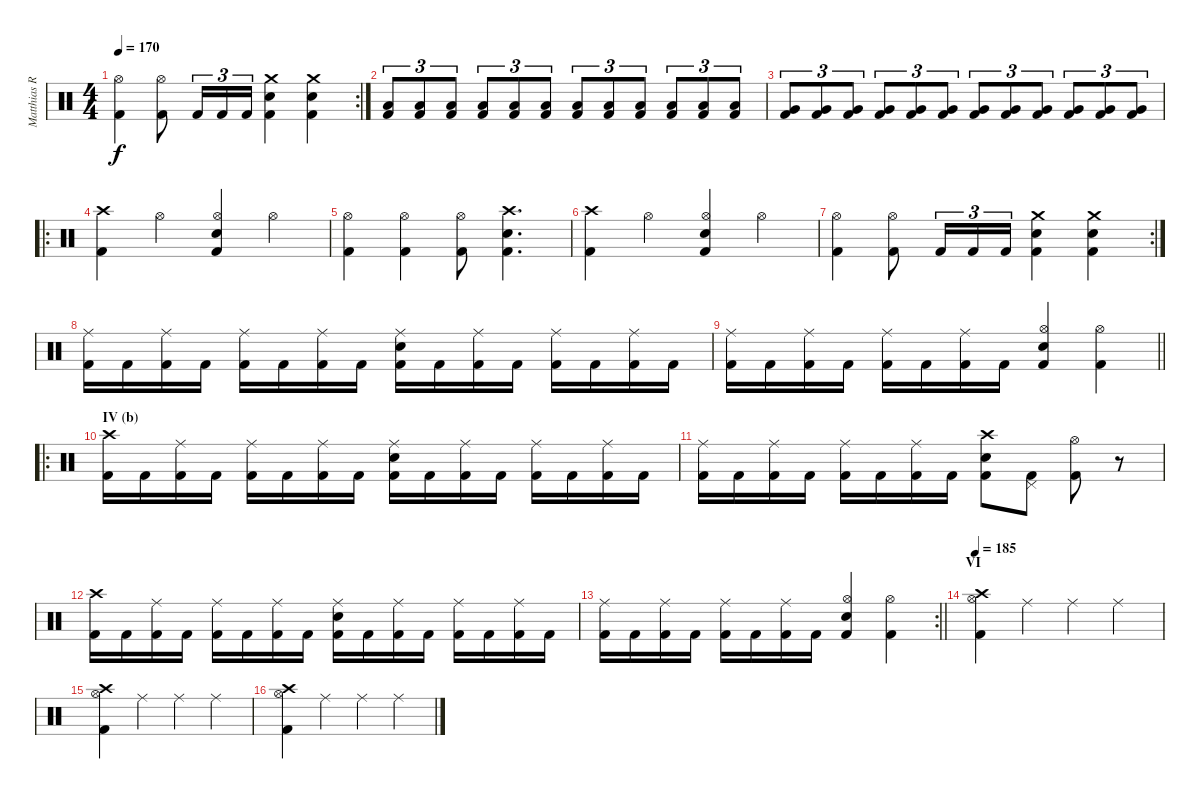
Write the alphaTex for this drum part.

\track ("Matthias R." "Matthias R") {instrument percussion}
\staff {score}
\articulation defaults
\rc 2
\ts (4 4)
\tempo 170
\clef neutral
\ks c
("Kick (hit) 2" "Hi-Hat (open)").4{dy f} ("Kick (hit) 2" "Hi-Hat (open)").8 "Kick (hit) 2".16{tu (3 2)} "Kick (hit) 2".16{tu (3 2)} "Kick (hit) 2".16{tu (3 2)} ("Kick (hit) 2" "Snare (hit) 2" "Crash medium (hit)").4 ("Kick (hit) 2" "Snare (hit) 2" "Crash medium (hit)").4 |
("Kick (hit) 2" "Low Tom (hit)").8{tu (3 2)} ("Kick (hit) 2" "Low Tom (hit)").8{tu (3 2)} ("Kick (hit) 2" "Low Tom (hit)").8{tu (3 2)} ("Kick (hit) 2" "Low Tom (hit)").8{tu (3 2)} ("Kick (hit) 2" "Low Tom (hit)").8{tu (3 2)} ("Kick (hit) 2" "Low Tom (hit)").8{tu (3 2)} ("Kick (hit) 2" "Low Tom (hit)").8{tu (3 2)} ("Kick (hit) 2" "Low Tom (hit)").8{tu (3 2)} ("Kick (hit) 2" "Low Tom (hit)").8{tu (3 2)} ("Kick (hit) 2" "Low Tom (hit)").8{tu (3 2)} ("Kick (hit) 2" "Low Tom (hit)").8{tu (3 2)} ("Kick (hit) 2" "Low Tom (hit)").8{tu (3 2)} |
("Kick (hit) 2" "Very Low Tom (hit)").8{tu (3 2)} ("Kick (hit) 2" "Very Low Tom (hit)").8{tu (3 2)} ("Kick (hit) 2" "Very Low Tom (hit)").8{tu (3 2)} ("Kick (hit) 2" "Very Low Tom (hit)").8{tu (3 2)} ("Kick (hit) 2" "Very Low Tom (hit)").8{tu (3 2)} ("Kick (hit) 2" "Very Low Tom (hit)").8{tu (3 2)} ("Kick (hit) 2" "Very Low Tom (hit)").8{tu (3 2)} ("Kick (hit) 2" "Very Low Tom (hit)").8{tu (3 2)} ("Kick (hit) 2" "Very Low Tom (hit)").8{tu (3 2)} ("Kick (hit) 2" "Very Low Tom (hit)").8{tu (3 2)} ("Kick (hit) 2" "Very Low Tom (hit)").8{tu (3 2)} ("Kick (hit) 2" "Very Low Tom (hit)").8{tu (3 2)} |
\ro
("Kick (hit) 2" "Crash high (hit)").4 "Hi-Hat (open)".4 ("Kick (hit) 2" "Snare (hit) 2" "Hi-Hat (open)").4 "Hi-Hat (open)".4 |
("Kick (hit) 2" "Hi-Hat (open)").4 ("Kick (hit) 2" "Hi-Hat (open)").4 ("Kick (hit) 2" "Hi-Hat (open)").8 ("Kick (hit) 2" "Snare (hit) 2" "Crash high (hit)").4{d} |
("Kick (hit) 2" "Crash high (hit)").4 "Hi-Hat (open)".4 ("Kick (hit) 2" "Snare (hit) 2" "Hi-Hat (open)").4 "Hi-Hat (open)".4 |
\rc 2
("Kick (hit) 2" "Hi-Hat (open)").4 ("Kick (hit) 2" "Hi-Hat (open)").8 "Kick (hit) 2".16{tu (3 2)} "Kick (hit) 2".16{tu (3 2)} "Kick (hit) 2".16{tu (3 2)} ("Kick (hit) 2" "Snare (hit) 2" "Crash medium (hit)").4 ("Kick (hit) 2" "Snare (hit) 2" "Crash medium (hit)").4 |
("Kick (hit) 2" "Ride (middle)").16 "Kick (hit) 2".16 ("Kick (hit) 2" "Ride (middle)").16 "Kick (hit) 2".16 ("Kick (hit) 2" "Ride (middle)").16 "Kick (hit) 2".16 ("Kick (hit) 2" "Ride (middle)").16 "Kick (hit) 2".16 ("Kick (hit) 2" "Snare (hit) 2" "Ride (middle)").16 "Kick (hit) 2".16 ("Kick (hit) 2" "Ride (middle)").16 "Kick (hit) 2".16 ("Kick (hit) 2" "Ride (middle)").16 "Kick (hit) 2".16 ("Kick (hit) 2" "Ride (middle)").16 "Kick (hit) 2".16 |
\barLineRight lightlight
("Kick (hit) 2" "Ride (middle)").16 "Kick (hit) 2".16 ("Kick (hit) 2" "Ride (middle)").16 "Kick (hit) 2".16 ("Kick (hit) 2" "Ride (middle)").16 "Kick (hit) 2".16 ("Kick (hit) 2" "Ride (middle)").16 "Kick (hit) 2".16 ("Kick (hit) 2" "Snare (hit) 2" "Hi-Hat (open)").4 ("Kick (hit) 2" "Hi-Hat (open)").4 |
\ro
\section ("" "IV (b)")
("Kick (hit) 2" "Crash high (hit)").16 "Kick (hit) 2".16 ("Kick (hit) 2" "Ride (middle)").16 "Kick (hit) 2".16 ("Kick (hit) 2" "Ride (middle)").16 "Kick (hit) 2".16 ("Kick (hit) 2" "Ride (middle)").16 "Kick (hit) 2".16 ("Kick (hit) 2" "Snare (hit) 2" "Ride (middle)").16 "Kick (hit) 2".16 ("Kick (hit) 2" "Ride (middle)").16 "Kick (hit) 2".16 ("Kick (hit) 2" "Ride (middle)").16 "Kick (hit) 2".16 ("Kick (hit) 2" "Ride (middle)").16 "Kick (hit) 2".16 |
("Kick (hit) 2" "Ride (middle)").16 "Kick (hit) 2".16 ("Kick (hit) 2" "Ride (middle)").16 "Kick (hit) 2".16 ("Kick (hit) 2" "Ride (middle)").16 "Kick (hit) 2".16 ("Kick (hit) 2" "Ride (middle)").16 "Kick (hit) 2".16 ("Kick (hit) 2" "Snare (hit) 2" "Crash high (hit)").8 ("Kick (hit) 2" "Pedal Hi-Hat (hit)").8 ("Kick (hit) 2" "Hi-Hat (open)").8 r.8 |
("Kick (hit) 2" "Crash high (hit)").16 "Kick (hit) 2".16 ("Kick (hit) 2" "Ride (middle)").16 "Kick (hit) 2".16 ("Kick (hit) 2" "Ride (middle)").16 "Kick (hit) 2".16 ("Kick (hit) 2" "Ride (middle)").16 "Kick (hit) 2".16 ("Kick (hit) 2" "Snare (hit) 2" "Ride (middle)").16 "Kick (hit) 2".16 ("Kick (hit) 2" "Ride (middle)").16 "Kick (hit) 2".16 ("Kick (hit) 2" "Ride (middle)").16 "Kick (hit) 2".16 ("Kick (hit) 2" "Ride (middle)").16 "Kick (hit) 2".16 |
\rc 2
\barLineRight lightlight
("Kick (hit) 2" "Ride (middle)").16 "Kick (hit) 2".16 ("Kick (hit) 2" "Ride (middle)").16 "Kick (hit) 2".16 ("Kick (hit) 2" "Ride (middle)").16 "Kick (hit) 2".16 ("Kick (hit) 2" "Ride (middle)").16 "Kick (hit) 2".16 ("Kick (hit) 2" "Snare (hit) 2" "Hi-Hat (open)").4 ("Kick (hit) 2" "Hi-Hat (open)").4 |
\section ("" "VI")
\tempo 185
("Kick (hit) 2" "Hi-Hat (open)" "Crash high (hit)").4 "Ride (middle)".4 "Ride (middle)".4 "Ride (middle)".4 |
("Kick (hit) 2" "Hi-Hat (open)" "Crash high (hit)").4 "Ride (middle)".4 "Ride (middle)".4 "Ride (middle)".4 |
("Kick (hit) 2" "Hi-Hat (open)" "Crash high (hit)").4 "Ride (middle)".4 "Ride (middle)".4 "Ride (middle)".4
